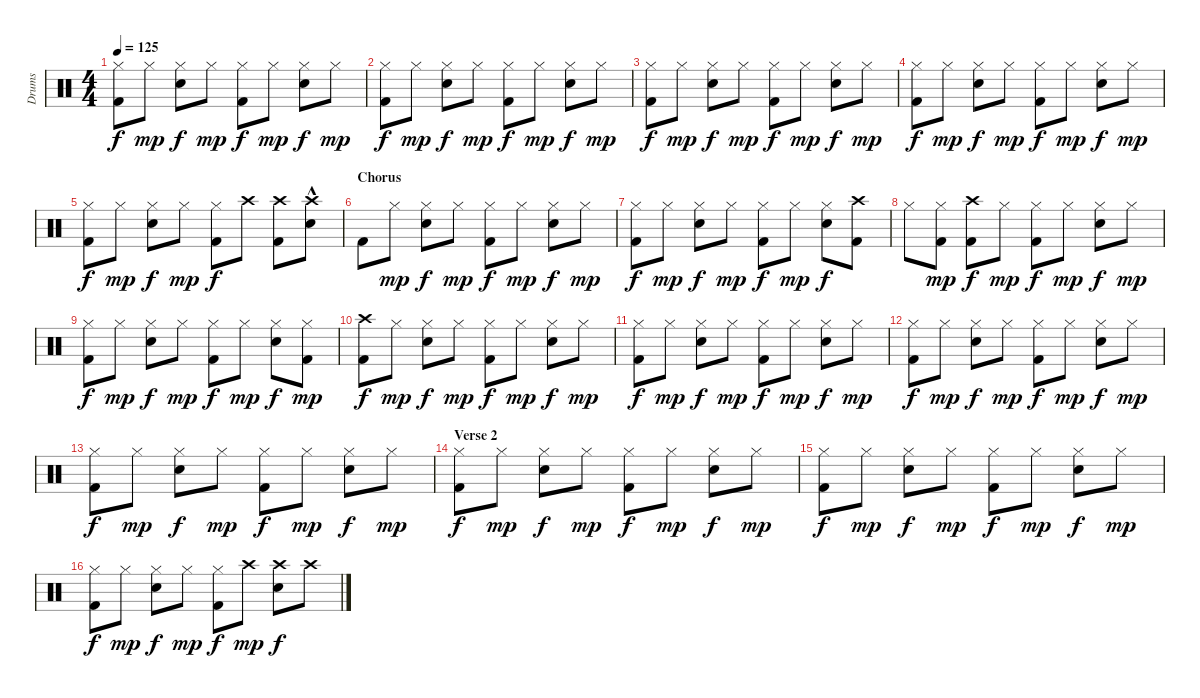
\track ("Drums" "Drums") {instrument percussion}
\staff {score}
\articulation defaults
\ts (4 4)
\tempo 125
\clef neutral
\ks c
("Hi-Hat (closed)" "Kick (hit) 2").8{dy f} "Hi-Hat (closed)".8{dy mp} ("Hi-Hat (closed)" "Snare (hit) 2").8{dy f} "Hi-Hat (closed)".8{dy mp} ("Hi-Hat (closed)" "Kick (hit) 2").8{dy f} "Hi-Hat (closed)".8{dy mp} ("Hi-Hat (closed)" "Snare (hit) 2").8{dy f} "Hi-Hat (closed)".8{dy mp} |
("Hi-Hat (closed)" "Kick (hit) 2").8{dy f} "Hi-Hat (closed)".8{dy mp} ("Hi-Hat (closed)" "Snare (hit) 2").8{dy f} "Hi-Hat (closed)".8{dy mp} ("Hi-Hat (closed)" "Kick (hit) 2").8{dy f} "Hi-Hat (closed)".8{dy mp} ("Hi-Hat (closed)" "Snare (hit) 2").8{dy f} "Hi-Hat (closed)".8{dy mp} |
("Hi-Hat (closed)" "Kick (hit) 2").8{dy f} "Hi-Hat (closed)".8{dy mp} ("Hi-Hat (closed)" "Snare (hit) 2").8{dy f} "Hi-Hat (closed)".8{dy mp} ("Hi-Hat (closed)" "Kick (hit) 2").8{dy f} "Hi-Hat (closed)".8{dy mp} ("Hi-Hat (closed)" "Snare (hit) 2").8{dy f} "Hi-Hat (closed)".8{dy mp} |
("Hi-Hat (closed)" "Kick (hit) 2").8{dy f} "Hi-Hat (closed)".8{dy mp} ("Hi-Hat (closed)" "Snare (hit) 2").8{dy f} "Hi-Hat (closed)".8{dy mp} ("Hi-Hat (closed)" "Kick (hit) 2").8{dy f} "Hi-Hat (closed)".8{dy mp} ("Hi-Hat (closed)" "Snare (hit) 2").8{dy f} "Hi-Hat (closed)".8{dy mp} |
("Hi-Hat (closed)" "Kick (hit) 2").8{dy f} "Hi-Hat (closed)".8{dy mp} ("Hi-Hat (closed)" "Snare (hit) 2").8{dy f} "Hi-Hat (closed)".8{dy mp} ("Hi-Hat (closed)" "Kick (hit) 2").8{dy f} "Crash high (hit)".8 ("Crash high (hit)" "Kick (hit) 2").8 ("Crash high (hit)"{hac} "Snare (hit) 2").8 |
\section ("" "Chorus")
"Kick (hit) 2".8 "Hi-Hat (closed)".8{dy mp} ("Hi-Hat (closed)" "Snare (hit) 2").8{dy f} "Hi-Hat (closed)".8{dy mp} ("Hi-Hat (closed)" "Kick (hit) 2").8{dy f} "Hi-Hat (closed)".8{dy mp} ("Hi-Hat (closed)" "Snare (hit) 2").8{dy f} "Hi-Hat (closed)".8{dy mp} |
("Hi-Hat (closed)" "Kick (hit) 2").8{dy f} "Hi-Hat (closed)".8{dy mp} ("Hi-Hat (closed)" "Snare (hit) 2").8{dy f} "Hi-Hat (closed)".8{dy mp} ("Hi-Hat (closed)" "Kick (hit) 2").8{dy f} "Hi-Hat (closed)".8{dy mp} ("Hi-Hat (closed)" "Snare (hit) 2").8{dy f} ("Crash high (hit)" "Kick (hit) 2").8 |
"Hi-Hat (closed)".8 ("Hi-Hat (closed)" "Kick (hit) 2").8{dy mp} ("Crash high (hit)" "Kick (hit) 2").8{dy f} "Hi-Hat (closed)".8{dy mp} ("Hi-Hat (closed)" "Kick (hit) 2").8{dy f} "Hi-Hat (closed)".8{dy mp} ("Hi-Hat (closed)" "Snare (hit) 2").8{dy f} "Hi-Hat (closed)".8{dy mp} |
("Hi-Hat (closed)" "Kick (hit) 2").8{dy f} "Hi-Hat (closed)".8{dy mp} ("Hi-Hat (closed)" "Snare (hit) 2").8{dy f} "Hi-Hat (closed)".8{dy mp} ("Hi-Hat (closed)" "Kick (hit) 2").8{dy f} "Hi-Hat (closed)".8{dy mp} ("Hi-Hat (closed)" "Snare (hit) 2").8{dy f} ("Hi-Hat (closed)" "Kick (hit) 2").8{dy mp} |
("Crash high (hit)" "Kick (hit) 2").8{dy f} "Hi-Hat (closed)".8{dy mp} ("Hi-Hat (closed)" "Snare (hit) 2").8{dy f} "Hi-Hat (closed)".8{dy mp} ("Hi-Hat (closed)" "Kick (hit) 2").8{dy f} "Hi-Hat (closed)".8{dy mp} ("Hi-Hat (closed)" "Snare (hit) 2").8{dy f} "Hi-Hat (closed)".8{dy mp} |
("Hi-Hat (closed)" "Kick (hit) 2").8{dy f} "Hi-Hat (closed)".8{dy mp} ("Hi-Hat (closed)" "Snare (hit) 2").8{dy f} "Hi-Hat (closed)".8{dy mp} ("Hi-Hat (closed)" "Kick (hit) 2").8{dy f} "Hi-Hat (closed)".8{dy mp} ("Hi-Hat (closed)" "Snare (hit) 2").8{dy f} "Hi-Hat (closed)".8{dy mp} |
("Hi-Hat (closed)" "Kick (hit) 2").8{dy f} "Hi-Hat (closed)".8{dy mp} ("Hi-Hat (closed)" "Snare (hit) 2").8{dy f} "Hi-Hat (closed)".8{dy mp} ("Hi-Hat (closed)" "Kick (hit) 2").8{dy f} "Hi-Hat (closed)".8{dy mp} ("Hi-Hat (closed)" "Snare (hit) 2").8{dy f} "Hi-Hat (closed)".8{dy mp} |
("Hi-Hat (closed)" "Kick (hit) 2").8{dy f} "Hi-Hat (closed)".8{dy mp} ("Hi-Hat (closed)" "Snare (hit) 2").8{dy f} "Hi-Hat (closed)".8{dy mp} ("Hi-Hat (closed)" "Kick (hit) 2").8{dy f} "Hi-Hat (closed)".8{dy mp} ("Hi-Hat (closed)" "Snare (hit) 2").8{dy f} "Hi-Hat (closed)".8{dy mp} |
\section ("" "Verse 2")
("Hi-Hat (closed)" "Kick (hit) 2").8{dy f} "Hi-Hat (closed)".8{dy mp} ("Hi-Hat (closed)" "Snare (hit) 2").8{dy f} "Hi-Hat (closed)".8{dy mp} ("Hi-Hat (closed)" "Kick (hit) 2").8{dy f} "Hi-Hat (closed)".8{dy mp} ("Hi-Hat (closed)" "Snare (hit) 2").8{dy f} "Hi-Hat (closed)".8{dy mp} |
("Hi-Hat (closed)" "Kick (hit) 2").8{dy f} "Hi-Hat (closed)".8{dy mp} ("Hi-Hat (closed)" "Snare (hit) 2").8{dy f} "Hi-Hat (closed)".8{dy mp} ("Hi-Hat (closed)" "Kick (hit) 2").8{dy f} "Hi-Hat (closed)".8{dy mp} ("Hi-Hat (closed)" "Snare (hit) 2").8{dy f} "Hi-Hat (closed)".8{dy mp} |
("Hi-Hat (closed)" "Kick (hit) 2").8{dy f} "Hi-Hat (closed)".8{dy mp} ("Hi-Hat (closed)" "Snare (hit) 2").8{dy f} "Hi-Hat (closed)".8{dy mp} ("Hi-Hat (closed)" "Kick (hit) 2").8{dy f} "Crash high (hit)".8{dy mp} ("Crash high (hit)" "Snare (hit) 2").8{dy f} "Crash high (hit)".8
